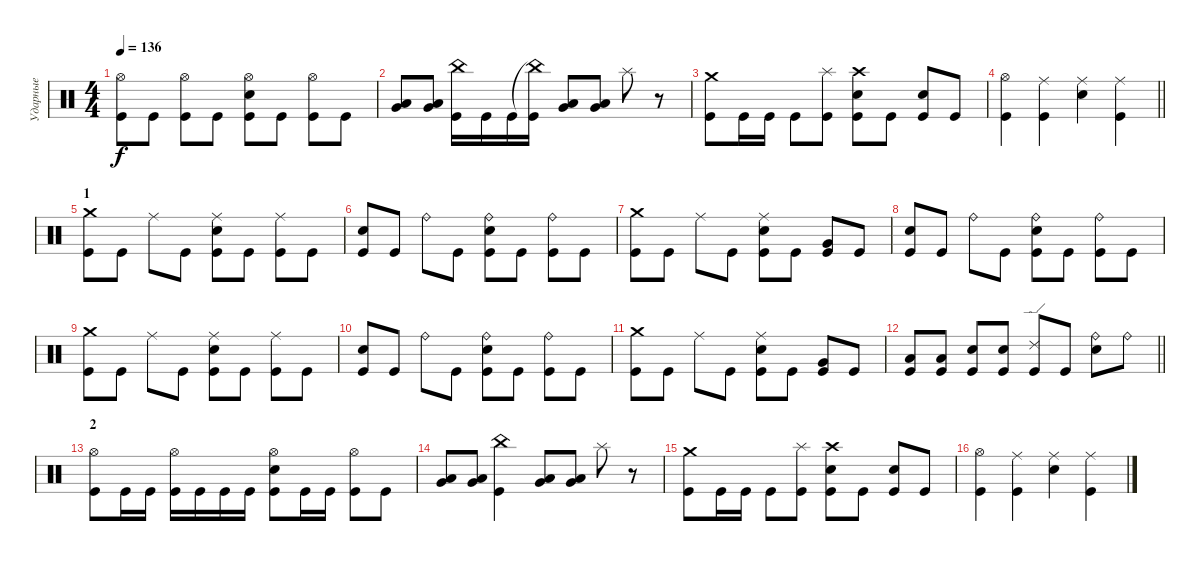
\track ("Ударные" "Ударные") {instrument percussion}
\staff {score}
\articulation defaults
\ts (4 4)
\tempo 136
\clef neutral
\ks c
("Hi-Hat (open)" "Kick (hit)").8{dy f} "Kick (hit)".8 ("Hi-Hat (open)" "Kick (hit)").8 "Kick (hit)".8 ("Hi-Hat (open)" "Electric Snare (hit)" "Kick (hit)").8 "Kick (hit)".8 ("Hi-Hat (open)" "Kick (hit)").8 "Kick (hit)".8 |
("Very Low Tom (hit)" "Low Tom (hit)").8 ("Very Low Tom (hit)" "Low Tom (hit)").8 ("China (hit)" "Kick (hit)").16 "Kick (hit)".16 "Kick (hit)".16 ("China (hit)"{t} "Kick (hit)").16 ("Very Low Tom (hit)" "Low Tom (hit)").8 ("Very Low Tom (hit)" "Low Tom (hit)").8 "Splash (hit)".8 r.8 |
("Kick (hit)" "Crash medium (hit)").8 "Kick (hit)".16 "Kick (hit)".16 "Kick (hit)".8 ("Splash (hit)" "Kick (hit)").8 ("Crash high (hit)" "Electric Snare (hit)" "Kick (hit)").8 "Kick (hit)".8 ("Kick (hit)" "Electric Snare (hit)").8 "Kick (hit)".8 |
\barLineRight lightlight
("Hi-Hat (open)" "Kick (hit)").4 ("Ride (middle)" "Kick (hit)").4 ("Ride (middle)" "Electric Snare (hit)").4 ("Ride (middle)" "Kick (hit)").4 |
\section ("" "1")
("Crash medium (hit)" "Kick (hit)").8 "Kick (hit)".8 "Ride (middle)".8 "Kick (hit)".8 ("Ride (middle)" "Kick (hit)" "Electric Snare (hit)").8 "Kick (hit)".8 ("Ride (middle)" "Kick (hit)").8 "Kick (hit)".8 |
("Kick (hit)" "Electric Snare (hit)").8 "Kick (hit)".8 "Ride (bell)".8 "Kick (hit)".8 ("Electric Snare (hit)" "Kick (hit)" "Ride (bell)").8 "Kick (hit)".8 ("Ride (bell)" "Kick (hit)").8 "Kick (hit)".8 |
("Crash medium (hit)" "Kick (hit)").8 "Kick (hit)".8 "Ride (middle)".8 "Kick (hit)".8 ("Ride (middle)" "Kick (hit)" "Electric Snare (hit)").8 "Kick (hit)".8 ("Very Low Tom (hit)" "Kick (hit)").8 "Kick (hit)".8 |
("Kick (hit)" "Electric Snare (hit)").8 "Kick (hit)".8 "Ride (bell)".8 "Kick (hit)".8 ("Electric Snare (hit)" "Kick (hit)" "Ride (bell)").8 "Kick (hit)".8 ("Ride (bell)" "Kick (hit)").8 "Kick (hit)".8 |
("Crash medium (hit)" "Kick (hit)").8 "Kick (hit)".8 "Ride (middle)".8 "Kick (hit)".8 ("Ride (middle)" "Kick (hit)" "Electric Snare (hit)").8 "Kick (hit)".8 ("Ride (middle)" "Kick (hit)").8 "Kick (hit)".8 |
("Kick (hit)" "Electric Snare (hit)").8 "Kick (hit)".8 "Ride (bell)".8 "Kick (hit)".8 ("Electric Snare (hit)" "Kick (hit)" "Ride (bell)").8 "Kick (hit)".8 ("Ride (bell)" "Kick (hit)").8 "Kick (hit)".8 |
("Crash medium (hit)" "Kick (hit)").8 "Kick (hit)".8 "Ride (middle)".8 "Kick (hit)".8 ("Ride (middle)" "Kick (hit)" "Electric Snare (hit)").8 "Kick (hit)".8 ("Very Low Tom (hit)" "Kick (hit)").8 "Kick (hit)".8 |
\barLineRight lightlight
("Low Floor Tom (hit)" "Kick (hit)").8 ("Low Floor Tom (hit)" "Kick (hit)").8 ("Electric Snare (hit)" "Kick (hit)").8 ("Electric Snare (hit)" "Kick (hit)").8 ("Ride (edge) 2" "Kick (hit)").8 "Kick (hit)".8 ("Electric Snare (hit)" "Ride (bell)").8 "Ride (bell)".8 |
\section ("" "2")
("Kick (hit)" "Hi-Hat (open)").8 "Kick (hit)".16 "Kick (hit)".16 ("Kick (hit)" "Hi-Hat (open)").16 "Kick (hit)".16 "Kick (hit)".16 "Kick (hit)".16 ("Kick (hit)" "Electric Snare (hit)" "Hi-Hat (open)").8 "Kick (hit)".16 "Kick (hit)".16 ("Kick (hit)" "Hi-Hat (open)").8 "Kick (hit)".8 |
("Very Low Tom (hit)" "Low Tom (hit)").8 ("Very Low Tom (hit)" "Low Tom (hit)").8 ("China (hit)" "Kick (hit)").4 ("Very Low Tom (hit)" "Low Tom (hit)").8 ("Very Low Tom (hit)" "Low Tom (hit)").8 "Splash (hit)".8 r.8 |
("Kick (hit)" "Crash medium (hit)").8 "Kick (hit)".16 "Kick (hit)".16 "Kick (hit)".8 ("Splash (hit)" "Kick (hit)").8 ("Crash high (hit)" "Electric Snare (hit)" "Kick (hit)").8 "Kick (hit)".8 ("Kick (hit)" "Electric Snare (hit)").8 "Kick (hit)".8 |
("Hi-Hat (open)" "Kick (hit)").4 ("Ride (middle)" "Kick (hit)").4 ("Ride (middle)" "Electric Snare (hit)").4 ("Ride (middle)" "Kick (hit)").4
